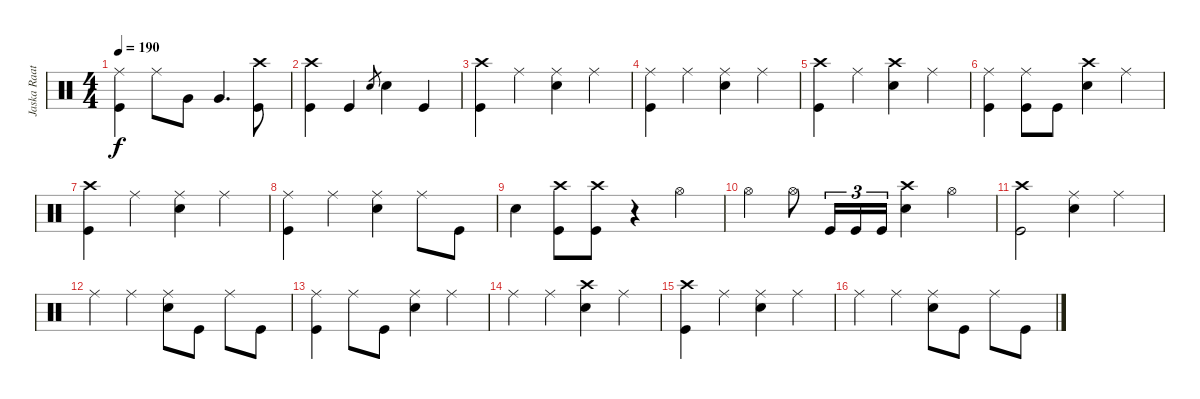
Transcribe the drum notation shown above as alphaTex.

\track ("Jaska Raatikainen" "Jaska Raat") {instrument percussion}
\staff {score}
\articulation defaults
\ts (4 4)
\tempo 190
\clef neutral
\ks c
("Ride (middle)" "Kick (hit)").4{dy f} "Ride (middle)".8 "Very Low Tom (hit)".8 "Very Low Tom (hit)".4{d} ("Crash high (hit)" "Kick (hit)").8 |
("Crash high (hit)" "Kick (hit)").4 "Kick (hit)".4 "Snare (hit) 2".8{gr} "Snare (hit) 2".4 "Kick (hit)".4 |
("Crash high (hit)" "Kick (hit)").4 "Ride (middle)".4 ("Ride (middle)" "Snare (hit) 2").4 "Ride (middle)".4 |
("Ride (middle)" "Kick (hit)").4 "Ride (middle)".4 ("Ride (middle)" "Snare (hit) 2").4 "Ride (middle)".4 |
("Crash high (hit)" "Kick (hit)").4 "Ride (middle)".4 ("Crash high (hit)" "Snare (hit) 2").4 "Ride (middle)".4 |
("Ride (middle)" "Kick (hit)").4 ("Ride (middle)" "Kick (hit)").8 "Kick (hit)".8 ("Crash high (hit)" "Snare (hit) 2").4 "Ride (middle)".4 |
("Crash high (hit)" "Kick (hit)").4 "Ride (middle)".4 ("Ride (middle)" "Snare (hit) 2").4 "Ride (middle)".4 |
("Ride (middle)" "Kick (hit)").4 "Ride (middle)".4 ("Ride (middle)" "Snare (hit) 2").4 "Ride (middle)".8 "Kick (hit)".8 |
"Snare (hit) 2".4 ("Crash high (hit)" "Kick (hit)").8 ("Crash high (hit)" "Kick (hit)").8 r.4 "Hi-Hat (open)".4 |
"Hi-Hat (open)".4 "Hi-Hat (open)".8 "Kick (hit)".16{tu (3 2)} "Kick (hit)".16{tu (3 2)} "Kick (hit)".16{tu (3 2)} ("Crash high (hit)" "Snare (hit) 2").4 "Hi-Hat (open)".4 |
("Crash high (hit)" "Kick (hit)").2 ("Ride (middle)" "Snare (hit) 2").4 "Ride (middle)".4 |
"Ride (middle)".4 "Ride (middle)".4 ("Ride (middle)" "Snare (hit) 2").8 "Kick (hit)".8 "Ride (middle)".8 "Kick (hit)".8 |
("Ride (middle)" "Kick (hit)").4 "Ride (middle)".8 "Kick (hit)".8 ("Ride (middle)" "Snare (hit) 2").4 "Ride (middle)".4 |
"Ride (middle)".4 "Ride (middle)".4 ("Crash high (hit)" "Snare (hit) 2").4 "Ride (middle)".4 |
("Crash high (hit)" "Kick (hit)").4 "Ride (middle)".4 ("Ride (middle)" "Snare (hit) 2").4 "Ride (middle)".4 |
"Ride (middle)".4 "Ride (middle)".4 ("Ride (middle)" "Snare (hit) 2").8 "Kick (hit)".8 "Ride (middle)".8 "Kick (hit)".8
